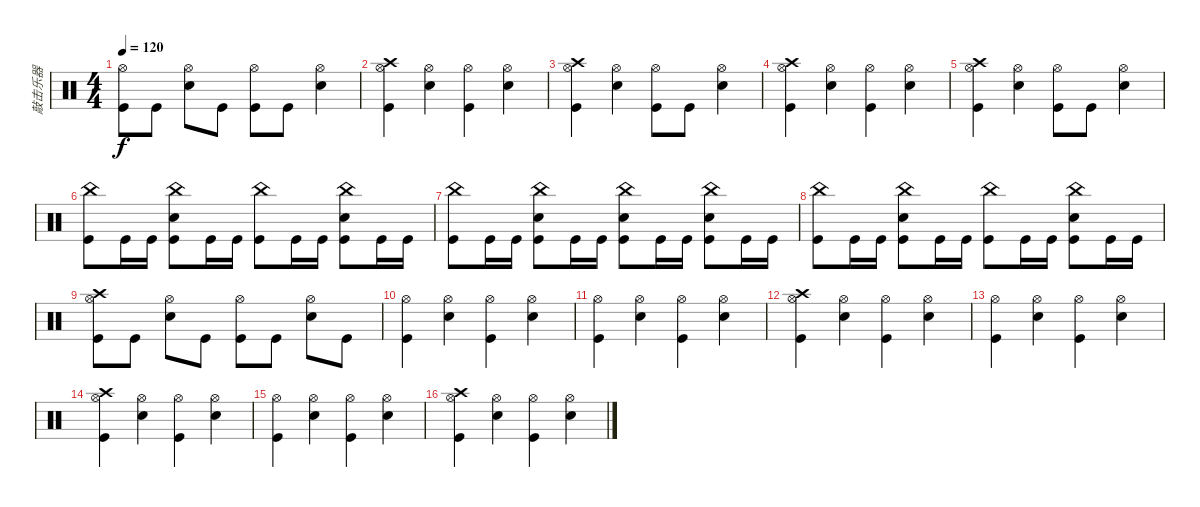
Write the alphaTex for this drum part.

\track ("敲击乐器" "敲击乐器") {instrument percussion}
\staff {score}
\articulation defaults
\ts (4 4)
\tempo 120
\clef neutral
\ks c
("Hi-Hat (open)" "Kick (hit)").8{dy f} "Kick (hit)".8 ("Hi-Hat (open)" "Snare (hit) 2").8 "Kick (hit)".8 ("Hi-Hat (open)" "Kick (hit)").8 "Kick (hit)".8 ("Hi-Hat (open)" "Snare (hit) 2").4 |
("Crash high (hit)" "Hi-Hat (open)" "Kick (hit)").4 ("Hi-Hat (open)" "Snare (hit) 2").4 ("Hi-Hat (open)" "Kick (hit)").4 ("Hi-Hat (open)" "Snare (hit) 2").4 |
("Crash high (hit)" "Hi-Hat (open)" "Kick (hit)").4 ("Hi-Hat (open)" "Snare (hit) 2").4 ("Hi-Hat (open)" "Kick (hit)").8 "Kick (hit)".8 ("Hi-Hat (open)" "Snare (hit) 2").4 |
("Crash high (hit)" "Hi-Hat (open)" "Kick (hit)").4 ("Hi-Hat (open)" "Snare (hit) 2").4 ("Hi-Hat (open)" "Kick (hit)").4 ("Hi-Hat (open)" "Snare (hit) 2").4 |
("Crash high (hit)" "Hi-Hat (open)" "Kick (hit)").4 ("Hi-Hat (open)" "Snare (hit) 2").4 ("Hi-Hat (open)" "Kick (hit)").8 "Kick (hit)".8 ("Hi-Hat (open)" "Snare (hit) 2").4 |
("China (hit)" "Kick (hit)").8 "Kick (hit)".16 "Kick (hit)".16 ("China (hit)" "Snare (hit) 2" "Kick (hit)").8 "Kick (hit)".16 "Kick (hit)".16 ("China (hit)" "Kick (hit)").8 "Kick (hit)".16 "Kick (hit)".16 ("China (hit)" "Snare (hit) 2" "Kick (hit)").8 "Kick (hit)".16 "Kick (hit)".16 |
("China (hit)" "Kick (hit)").8 "Kick (hit)".16 "Kick (hit)".16 ("China (hit)" "Snare (hit) 2" "Kick (hit)").8 "Kick (hit)".16 "Kick (hit)".16 ("China (hit)" "Snare (hit) 2" "Kick (hit)").8 "Kick (hit)".16 "Kick (hit)".16 ("China (hit)" "Snare (hit) 2" "Kick (hit)").8 "Kick (hit)".16 "Kick (hit)".16 |
("China (hit)" "Kick (hit)").8 "Kick (hit)".16 "Kick (hit)".16 ("China (hit)" "Snare (hit) 2" "Kick (hit)").8 "Kick (hit)".16 "Kick (hit)".16 ("China (hit)" "Kick (hit)").8 "Kick (hit)".16 "Kick (hit)".16 ("China (hit)" "Snare (hit) 2" "Kick (hit)").8 "Kick (hit)".16 "Kick (hit)".16 |
("Crash high (hit)" "Hi-Hat (open)" "Kick (hit)").8 "Kick (hit)".8 ("Hi-Hat (open)" "Snare (hit) 2").8 "Kick (hit)".8 ("Hi-Hat (open)" "Kick (hit)").8 "Kick (hit)".8 ("Hi-Hat (open)" "Snare (hit) 2").8 "Kick (hit)".8 |
("Hi-Hat (open)" "Kick (hit)").4 ("Hi-Hat (open)" "Snare (hit) 2").4 ("Hi-Hat (open)" "Kick (hit)").4 ("Hi-Hat (open)" "Snare (hit) 2").4 |
("Hi-Hat (open)" "Kick (hit)").4 ("Hi-Hat (open)" "Snare (hit) 2").4 ("Hi-Hat (open)" "Kick (hit)").4 ("Hi-Hat (open)" "Snare (hit) 2").4 |
("Crash high (hit)" "Hi-Hat (open)" "Kick (hit)").4 ("Hi-Hat (open)" "Snare (hit) 2").4 ("Hi-Hat (open)" "Kick (hit)").4 ("Hi-Hat (open)" "Snare (hit) 2").4 |
("Hi-Hat (open)" "Kick (hit)").4 ("Hi-Hat (open)" "Snare (hit) 2").4 ("Hi-Hat (open)" "Kick (hit)").4 ("Hi-Hat (open)" "Snare (hit) 2").4 |
("Crash high (hit)" "Hi-Hat (open)" "Kick (hit)").4 ("Hi-Hat (open)" "Snare (hit) 2").4 ("Hi-Hat (open)" "Kick (hit)").4 ("Hi-Hat (open)" "Snare (hit) 2").4 |
("Hi-Hat (open)" "Kick (hit)").4 ("Hi-Hat (open)" "Snare (hit) 2").4 ("Hi-Hat (open)" "Kick (hit)").4 ("Hi-Hat (open)" "Snare (hit) 2").4 |
("Crash high (hit)" "Hi-Hat (open)" "Kick (hit)").4 ("Hi-Hat (open)" "Snare (hit) 2").4 ("Hi-Hat (open)" "Kick (hit)").4 ("Hi-Hat (open)" "Snare (hit) 2").4
